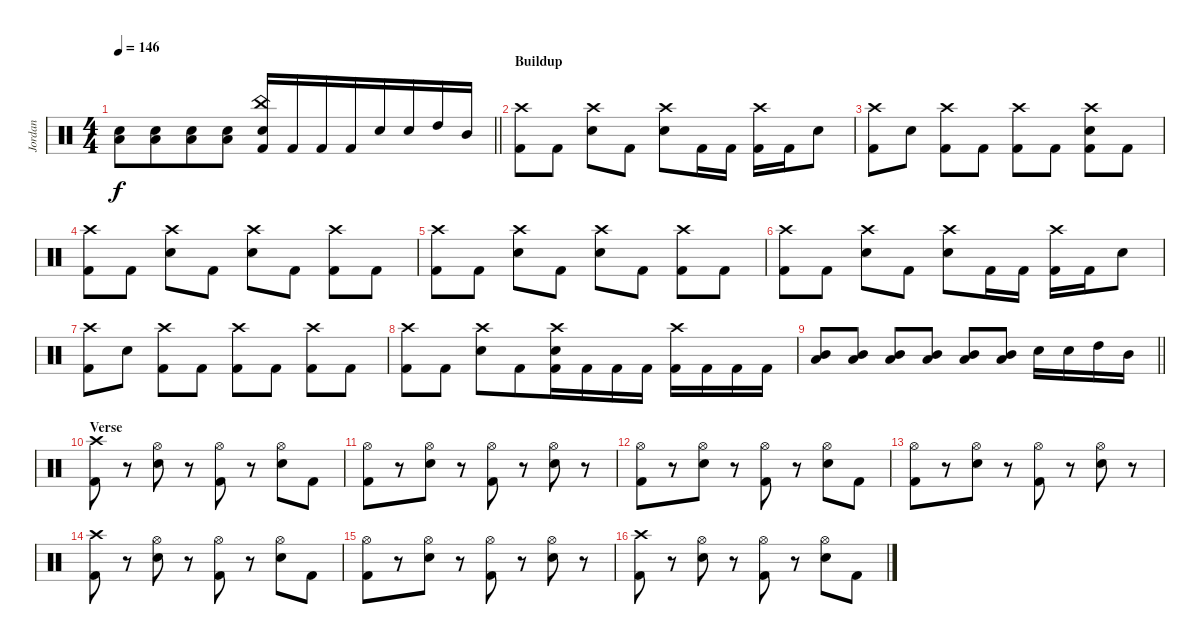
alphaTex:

\track ("Jordan" "Jordan") {instrument percussion}
\staff {score}
\articulation defaults
\ts (4 4)
\tempo 146
\clef neutral
\barLineRight lightlight
\ks c
("Snare (hit) 2" "Low Tom (hit)").8{dy f} ("Snare (hit) 2" "Low Tom (hit)").8{beam merge} ("Snare (hit) 2" "Low Tom (hit)").8 ("Snare (hit) 2" "Low Tom (hit)").8 ("China (hit)" "Snare (hit) 2" "Kick (hit) 2").16 "Kick (hit) 2".16{beam merge} "Kick (hit) 2".16{beam merge} "Kick (hit) 2".16{beam merge} "Snare (hit) 2".16{beam merge} "Snare (hit) 2".16{beam merge} "High Tom (hit)".16 "Mid Tom (hit)".16 |
\section ("" "Buildup")
("Crash high (hit)" "Kick (hit) 2").8{beam merge} "Kick (hit) 2".8 ("Crash high (hit)" "Snare (hit) 2").8 "Kick (hit) 2".8 ("Crash high (hit)" "Snare (hit) 2").8 "Kick (hit) 2".16 "Kick (hit) 2".16 ("Crash high (hit)" "Kick (hit) 2").16 "Kick (hit) 2".16 "Snare (hit) 2".8 |
("Crash high (hit)" "Kick (hit) 2").8{beam merge} "Snare (hit) 2".8 ("Crash high (hit)" "Kick (hit) 2").8 "Kick (hit) 2".8 ("Crash high (hit)" "Kick (hit) 2").8{beam merge} "Kick (hit) 2".8 ("Snare (hit) 2" "Crash high (hit)" "Kick (hit) 2").8 "Kick (hit) 2".8 |
("Crash high (hit)" "Kick (hit) 2").8{beam merge} "Kick (hit) 2".8 ("Crash high (hit)" "Snare (hit) 2").8 "Kick (hit) 2".8 ("Crash high (hit)" "Snare (hit) 2").8 "Kick (hit) 2".8 ("Crash high (hit)" "Kick (hit) 2").8 "Kick (hit) 2".8 |
("Crash high (hit)" "Kick (hit) 2").8{beam merge} "Kick (hit) 2".8 ("Crash high (hit)" "Snare (hit) 2").8 "Kick (hit) 2".8 ("Crash high (hit)" "Snare (hit) 2").8 "Kick (hit) 2".8 ("Crash high (hit)" "Kick (hit) 2").8 "Kick (hit) 2".8 |
("Crash high (hit)" "Kick (hit) 2").8{beam merge} "Kick (hit) 2".8 ("Crash high (hit)" "Snare (hit) 2").8 "Kick (hit) 2".8 ("Crash high (hit)" "Snare (hit) 2").8 "Kick (hit) 2".16 "Kick (hit) 2".16 ("Crash high (hit)" "Kick (hit) 2").16 "Kick (hit) 2".16 "Snare (hit) 2".8 |
("Crash high (hit)" "Kick (hit) 2").8{beam merge} "Snare (hit) 2".8 ("Crash high (hit)" "Kick (hit) 2").8 "Kick (hit) 2".8 ("Crash high (hit)" "Kick (hit) 2").8{beam merge} "Kick (hit) 2".8 ("Crash high (hit)" "Kick (hit) 2").8 "Kick (hit) 2".8 |
("Crash high (hit)" "Kick (hit) 2").8{beam merge} "Kick (hit) 2".8 ("Crash high (hit)" "Snare (hit) 2").8 "Kick (hit) 2".8{beam merge} ("Crash high (hit)" "Snare (hit) 2" "Kick (hit) 2").16{beam merge} "Kick (hit) 2".16{beam merge} "Kick (hit) 2".16{beam merge} "Kick (hit) 2".16 ("Crash high (hit)" "Kick (hit) 2").16 "Kick (hit) 2".16{beam merge} "Kick (hit) 2".16{beam merge} "Kick (hit) 2".16 |
\barLineRight lightlight
("Mid Tom (hit)" "Low Tom (hit)").8{beam merge} ("Mid Tom (hit)" "Low Tom (hit)").8 ("Mid Tom (hit)" "Low Tom (hit)").8 ("Mid Tom (hit)" "Low Tom (hit)").8 ("Mid Tom (hit)" "Low Tom (hit)").8 ("Mid Tom (hit)" "Low Tom (hit)").8 "Snare (hit) 2".16 "Snare (hit) 2".16 "High Tom (hit)".16{beam merge} "Mid Tom (hit)".16 |
\section ("" "Verse ")
("Crash high (hit)" "Kick (hit) 2").8 r.8 ("Hi-Hat (open)" "Snare (hit) 2").8 r.8{beam merge} ("Hi-Hat (open)" "Kick (hit) 2").8 r.8 ("Hi-Hat (open)" "Snare (hit) 2").8 "Kick (hit) 2".8 |
("Hi-Hat (open)" "Kick (hit) 2").8{beam merge} r.8 ("Hi-Hat (open)" "Snare (hit) 2").8 r.8{beam merge} ("Hi-Hat (open)" "Kick (hit) 2").8 r.8 ("Hi-Hat (open)" "Snare (hit) 2").8 r.8 |
("Hi-Hat (open)" "Kick (hit) 2").8{beam merge} r.8 ("Hi-Hat (open)" "Snare (hit) 2").8 r.8{beam merge} ("Hi-Hat (open)" "Kick (hit) 2").8 r.8 ("Hi-Hat (open)" "Snare (hit) 2").8 "Kick (hit) 2".8 |
("Hi-Hat (open)" "Kick (hit) 2").8{beam merge} r.8 ("Hi-Hat (open)" "Snare (hit) 2").8 r.8{beam merge} ("Hi-Hat (open)" "Kick (hit) 2").8 r.8 ("Hi-Hat (open)" "Snare (hit) 2").8 r.8 |
("Crash high (hit)" "Kick (hit) 2").8 r.8 ("Hi-Hat (open)" "Snare (hit) 2").8 r.8{beam merge} ("Hi-Hat (open)" "Kick (hit) 2").8 r.8 ("Hi-Hat (open)" "Snare (hit) 2").8 "Kick (hit) 2".8 |
("Hi-Hat (open)" "Kick (hit) 2").8{beam merge} r.8 ("Hi-Hat (open)" "Snare (hit) 2").8 r.8{beam merge} ("Hi-Hat (open)" "Kick (hit) 2").8 r.8 ("Hi-Hat (open)" "Snare (hit) 2").8 r.8 |
("Crash high (hit)" "Kick (hit) 2").8 r.8 ("Hi-Hat (open)" "Snare (hit) 2").8 r.8{beam merge} ("Hi-Hat (open)" "Kick (hit) 2").8 r.8 ("Hi-Hat (open)" "Snare (hit) 2").8 "Kick (hit) 2".8
